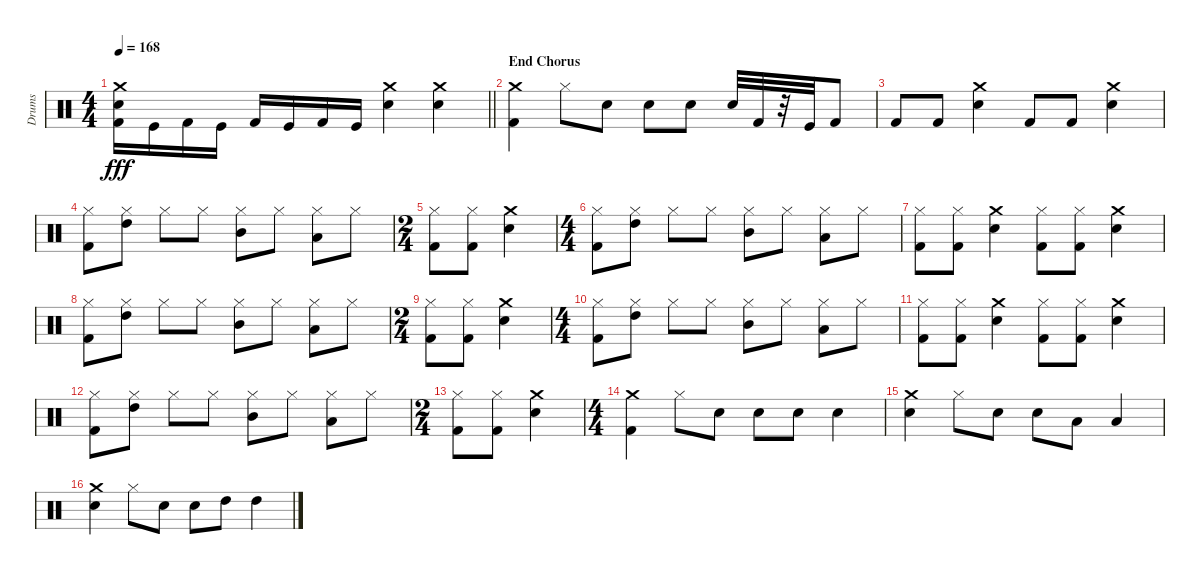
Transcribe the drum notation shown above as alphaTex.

\track ("Drums" "Drums") {instrument percussion}
\staff {score}
\articulation defaults
\ts (4 4)
\tempo 168
\clef neutral
\barLineRight lightlight
\ks c
("Kick (hit) 2" "Snare (hit) 2" "Crash medium (hit)").16{dy fff} "Kick (hit)".16 "Kick (hit) 2".16 "Kick (hit)".16 "Kick (hit) 2".16 "Kick (hit)".16 "Kick (hit) 2".16 "Kick (hit)".16 ("Crash medium (hit)" "Snare (hit) 2").4 ("Snare (hit) 2" "Crash medium (hit)").4 |
\section ("" "End Chorus")
("Kick (hit) 2" "Crash medium (hit)").4 "Hi-Hat (closed)".8 "Snare (hit) 2".8 "Snare (hit) 2".8 "Snare (hit) 2".8 "Snare (hit) 2".32 "Kick (hit) 2".32 r.32 "Kick (hit)".32 "Kick (hit) 2".8 |
"Kick (hit) 2".8 "Kick (hit) 2".8 ("Snare (hit) 2" "Crash medium (hit)").4 "Kick (hit) 2".8 "Kick (hit) 2".8 ("Crash medium (hit)" "Snare (hit) 2").4 |
("Hi-Hat (closed)" "Kick (hit) 2").8 ("High Tom (hit)" "Hi-Hat (closed)").8{balance 16} "Hi-Hat (closed)".8{balance 8} "Hi-Hat (closed)".8 ("Mid Tom (hit)" "Hi-Hat (closed)").8 "Hi-Hat (closed)".8 ("Low Tom (hit)" "Hi-Hat (closed)").8{balance 0} "Hi-Hat (closed)".8{balance 8} |
\ts (2 4)
("Kick (hit) 2" "Hi-Hat (closed)").8 ("Kick (hit) 2" "Hi-Hat (closed)").8 ("Snare (hit) 2" "Crash medium (hit)").4 |
\ts (4 4)
("Hi-Hat (closed)" "Kick (hit) 2").8 ("High Tom (hit)" "Hi-Hat (closed)").8{balance 16} "Hi-Hat (closed)".8{balance 8} "Hi-Hat (closed)".8 ("Mid Tom (hit)" "Hi-Hat (closed)").8 "Hi-Hat (closed)".8 ("Hi-Hat (closed)" "Low Tom (hit)").8{balance 0} "Hi-Hat (closed)".8{balance 8} |
("Hi-Hat (closed)" "Kick (hit) 2").8 ("Hi-Hat (closed)" "Kick (hit) 2").8 ("Snare (hit) 2" "Crash medium (hit)").4 ("Kick (hit) 2" "Hi-Hat (closed)").8 ("Kick (hit) 2" "Hi-Hat (closed)").8 ("Crash medium (hit)" "Snare (hit) 2").4 |
("Hi-Hat (closed)" "Kick (hit) 2").8 ("High Tom (hit)" "Hi-Hat (closed)").8{balance 16} "Hi-Hat (closed)".8{balance 8} "Hi-Hat (closed)".8 ("Mid Tom (hit)" "Hi-Hat (closed)").8 "Hi-Hat (closed)".8 ("Low Tom (hit)" "Hi-Hat (closed)").8{balance 0} "Hi-Hat (closed)".8{balance 8} |
\ts (2 4)
("Kick (hit) 2" "Hi-Hat (closed)").8 ("Kick (hit) 2" "Hi-Hat (closed)").8 ("Snare (hit) 2" "Crash medium (hit)").4 |
\ts (4 4)
("Hi-Hat (closed)" "Kick (hit) 2").8 ("High Tom (hit)" "Hi-Hat (closed)").8{balance 16} "Hi-Hat (closed)".8{balance 8} "Hi-Hat (closed)".8 ("Mid Tom (hit)" "Hi-Hat (closed)").8 "Hi-Hat (closed)".8 ("Hi-Hat (closed)" "Low Tom (hit)").8{balance 0} "Hi-Hat (closed)".8{balance 8} |
("Hi-Hat (closed)" "Kick (hit) 2").8 ("Hi-Hat (closed)" "Kick (hit) 2").8 ("Snare (hit) 2" "Crash medium (hit)").4 ("Kick (hit) 2" "Hi-Hat (closed)").8 ("Kick (hit) 2" "Hi-Hat (closed)").8 ("Crash medium (hit)" "Snare (hit) 2").4 |
("Hi-Hat (closed)" "Kick (hit) 2").8 ("High Tom (hit)" "Hi-Hat (closed)").8{balance 16} "Hi-Hat (closed)".8{balance 8} "Hi-Hat (closed)".8 ("Mid Tom (hit)" "Hi-Hat (closed)").8 "Hi-Hat (closed)".8 ("Hi-Hat (closed)" "Low Tom (hit)").8{balance 0} "Hi-Hat (closed)".8{balance 8} |
\ts (2 4)
("Hi-Hat (closed)" "Kick (hit) 2").8 ("Hi-Hat (closed)" "Kick (hit) 2").8 ("Crash medium (hit)" "Snare (hit) 2").4 |
\ts (4 4)
("Kick (hit) 2" "Crash medium (hit)").4 "Hi-Hat (closed)".8 "Snare (hit) 2".8 "Snare (hit) 2".8 "Snare (hit) 2".8 "Snare (hit) 2".4 |
("Snare (hit) 2" "Crash medium (hit)").4 "Hi-Hat (closed)".8 "Snare (hit) 2".8 "Snare (hit) 2".8 "Low Tom (hit)".8 "Low Tom (hit)".4 |
("Snare (hit) 2" "Crash medium (hit)").4 "Hi-Hat (closed)".8 "Snare (hit) 2".8 "Snare (hit) 2".8 "High Tom (hit)".8 "High Tom (hit)".4
